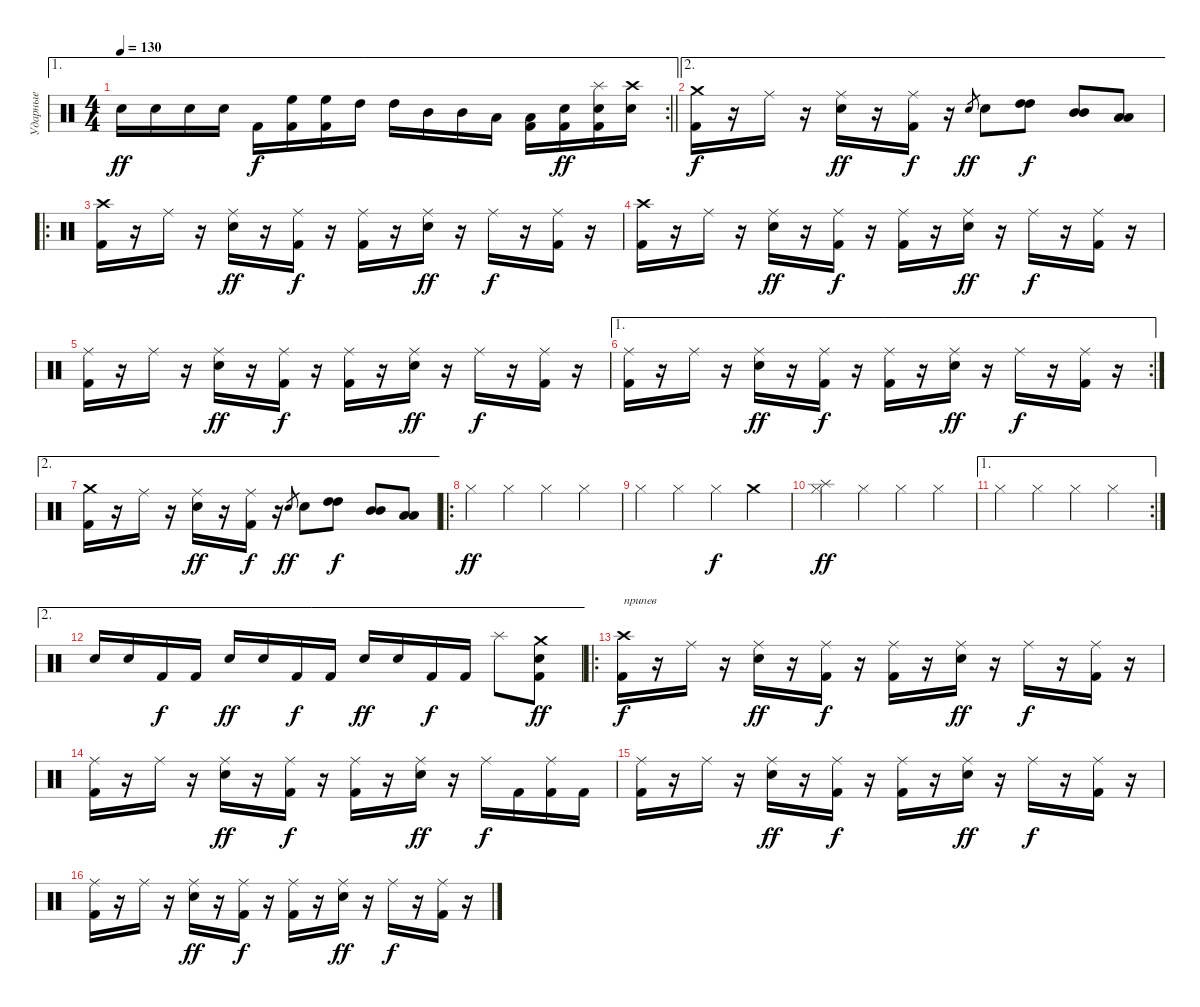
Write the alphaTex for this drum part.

\track ("Ударные" "Ударные") {instrument percussion}
\staff {score}
\articulation defaults
\ae 1
\rc 2
\ts (4 4)
\tempo 130
\clef neutral
\barLineRight lightlight
\ks c "Electric Snare (hit)".16{dy ff} "Electric Snare (hit)".16 "Electric Snare (hit)".16 "Electric Snare (hit)".16 "Kick (hit) 2".16{dy f}
("High Floor Tom (hit)" "Kick (hit) 2").16 ("High Floor Tom (hit)" "Kick (hit) 2").16 "High Tom (hit)".16 "High Tom (hit)".16 "Mid Tom (hit)".16 "Mid Tom (hit)".16 "Low Tom (hit)".16 ("Low Tom (hit)" "Kick (hit) 2").16 ("Electric Snare (hit)" "Kick (hit) 2").16{dy ff} ("Electric Snare (hit)" "Kick (hit) 2" "Splash (hit)").16 ("Electric Snare (hit)" "Crash high (hit)").16 |
\ae 2
("Kick (hit) 2" "Crash medium (hit)").16{dy f} r.16 "Ride (middle)".16 r.16 ("Electric Snare (hit)" "Ride (middle)").16{dy ff} r.16 ("Kick (hit) 2" "Ride (middle)").16{dy f} r.16 "Electric Snare (hit)".8{gr dy ff} "Electric Snare (hit)".8 ("High Tom (hit)" "High Tom (hit)").8{dy f} ("Mid Tom (hit)" "Mid Tom (hit)").8 ("Low Tom (hit)" "Low Tom (hit)").8 |
\ro
("Kick (hit) 2" "Crash high (hit)").16 r.16 "Ride (middle)".16 r.16 ("Electric Snare (hit)" "Ride (middle)").16{dy ff} r.16 ("Kick (hit) 2" "Ride (middle)").16{dy f} r.16 ("Kick (hit) 2" "Ride (middle)").16 r.16 ("Electric Snare (hit)" "Ride (middle)").16{dy ff} r.16 "Ride (middle)".16{dy f} r.16 ("Kick (hit) 2" "Ride (middle)").16 r.16 |
("Kick (hit) 2" "Crash high (hit)").16 r.16 "Ride (middle)".16 r.16 ("Electric Snare (hit)" "Ride (middle)").16{dy ff} r.16 ("Kick (hit) 2" "Ride (middle)").16{dy f} r.16 ("Kick (hit) 2" "Ride (middle)").16 r.16 ("Electric Snare (hit)" "Ride (middle)").16{dy ff} r.16 "Ride (middle)".16{dy f} r.16 ("Kick (hit) 2" "Ride (middle)").16 r.16 |
("Kick (hit) 2" "Ride (middle)").16 r.16 "Ride (middle)".16 r.16 ("Electric Snare (hit)" "Ride (middle)").16{dy ff} r.16 ("Kick (hit) 2" "Ride (middle)").16{dy f} r.16 ("Kick (hit) 2" "Ride (middle)").16 r.16 ("Electric Snare (hit)" "Ride (middle)").16{dy ff} r.16 "Ride (middle)".16{dy f} r.16 ("Kick (hit) 2" "Ride (middle)").16 r.16 |
\ae 1
\rc 2
("Kick (hit) 2" "Ride (middle)").16 r.16 "Ride (middle)".16 r.16 ("Electric Snare (hit)" "Ride (middle)").16{dy ff} r.16 ("Kick (hit) 2" "Ride (middle)").16{dy f} r.16 ("Kick (hit) 2" "Ride (middle)").16 r.16 ("Electric Snare (hit)" "Ride (middle)").16{dy ff} r.16 "Ride (middle)".16{dy f} r.16 ("Kick (hit) 2" "Ride (middle)").16 r.16 |
\ae 2
("Kick (hit) 2" "Crash medium (hit)").16 r.16 "Ride (middle)".16 r.16 ("Electric Snare (hit)" "Ride (middle)").16{dy ff} r.16 ("Kick (hit) 2" "Ride (middle)").16{dy f} r.16 "Electric Snare (hit)".8{gr dy ff} "Electric Snare (hit)".8 ("High Tom (hit)" "High Tom (hit)").8{dy f} ("Mid Tom (hit)" "Mid Tom (hit)").8 ("Low Tom (hit)" "Low Tom (hit)").8 |
\ro "Hi-Hat (closed)".4{dy ff} "Hi-Hat (closed)".4 "Hi-Hat (closed)".4 "Hi-Hat (closed)".4
|
"Hi-Hat (closed)".4 "Hi-Hat (closed)".4 "Hi-Hat (closed)".4{dy f} "Crash medium (hit)".4 |
("Hi-Hat (closed)" "Splash (hit)").4{dy ff} "Hi-Hat (closed)".4 "Hi-Hat (closed)".4 "Hi-Hat (closed)".4 |
\ae 1
\rc 2 "Hi-Hat (closed)".4 "Hi-Hat (closed)".4 "Hi-Hat (closed)".4 "Hi-Hat (closed)".4
|
\ae 2 "Electric Snare (hit)".16 "Electric Snare (hit)".16 "Kick (hit) 2".16{dy f} "Kick (hit) 2".16 "Electric Snare (hit)".16{dy ff} "Electric Snare (hit)".16 "Kick (hit) 2".16{dy f} "Kick (hit) 2".16 "Electric Snare (hit)".16{dy ff} "Electric Snare (hit)".16 "Kick (hit) 2".16{dy f} "Kick (hit) 2".16 "Splash (hit)".8
("Electric Snare (hit)" "Kick (hit) 2" "Crash medium (hit)").8{dy ff} |
\ro
("Kick (hit) 2" "Crash high (hit)").16{txt "припев" dy f} r.16 "Ride (middle)".16 r.16 ("Electric Snare (hit)" "Ride (middle)").16{dy ff} r.16 ("Kick (hit) 2" "Ride (middle)").16{dy f} r.16 ("Kick (hit) 2" "Ride (middle)").16 r.16 ("Electric Snare (hit)" "Ride (middle)").16{dy ff} r.16 "Ride (middle)".16{dy f} r.16 ("Kick (hit) 2" "Ride (middle)").16 r.16 |
("Kick (hit) 2" "Ride (middle)").16 r.16 "Ride (middle)".16 r.16 ("Electric Snare (hit)" "Ride (middle)").16{dy ff} r.16 ("Kick (hit) 2" "Ride (middle)").16{dy f} r.16 ("Kick (hit) 2" "Ride (middle)").16 r.16 ("Electric Snare (hit)" "Ride (middle)").16{dy ff} r.16 "Ride (middle)".16{dy f} "Kick (hit) 2".16 ("Kick (hit) 2" "Ride (middle)").16 "Kick (hit) 2".16 |
("Kick (hit) 2" "Ride (middle)").16 r.16 "Ride (middle)".16 r.16 ("Electric Snare (hit)" "Ride (middle)").16{dy ff} r.16 ("Kick (hit) 2" "Ride (middle)").16{dy f} r.16 ("Kick (hit) 2" "Ride (middle)").16 r.16 ("Electric Snare (hit)" "Ride (middle)").16{dy ff} r.16 "Ride (middle)".16{dy f} r.16 ("Kick (hit) 2" "Ride (middle)").16 r.16 |
("Kick (hit) 2" "Ride (middle)").16 r.16 "Ride (middle)".16 r.16 ("Electric Snare (hit)" "Ride (middle)").16{dy ff} r.16 ("Kick (hit) 2" "Ride (middle)").16{dy f} r.16 ("Kick (hit) 2" "Ride (middle)").16 r.16 ("Electric Snare (hit)" "Ride (middle)").16{dy ff} r.16 "Ride (middle)".16{dy f} r.16 ("Kick (hit) 2" "Ride (middle)").16 r.16
